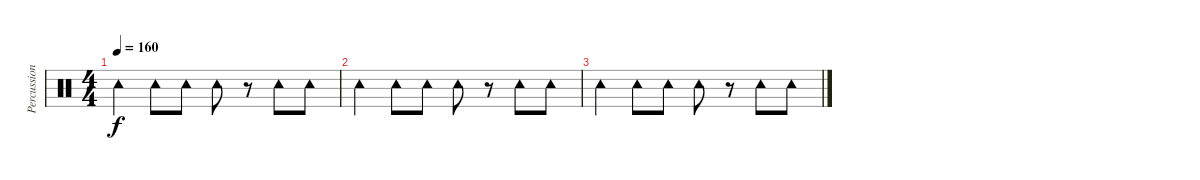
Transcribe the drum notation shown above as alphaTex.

\track ("Percussions" "Percussion") {instrument percussion}
\staff {score}
\articulation defaults
\ts (4 4)
\tempo 160
\clef neutral
\ks c "Tambourine (hit)".4{dy f} "Tambourine (hit)".8 "Tambourine (hit)".8 "Tambourine (hit)".8
r.8 "Tambourine (hit)".8 "Tambourine (hit)".8 |
"Tambourine (hit)".4 "Tambourine (hit)".8 "Tambourine (hit)".8 "Tambourine (hit)".8 r.8 "Tambourine (hit)".8 "Tambourine (hit)".8 |
"Tambourine (hit)".4 "Tambourine (hit)".8 "Tambourine (hit)".8 "Tambourine (hit)".8 r.8 "Tambourine (hit)".8 "Tambourine (hit)".8
